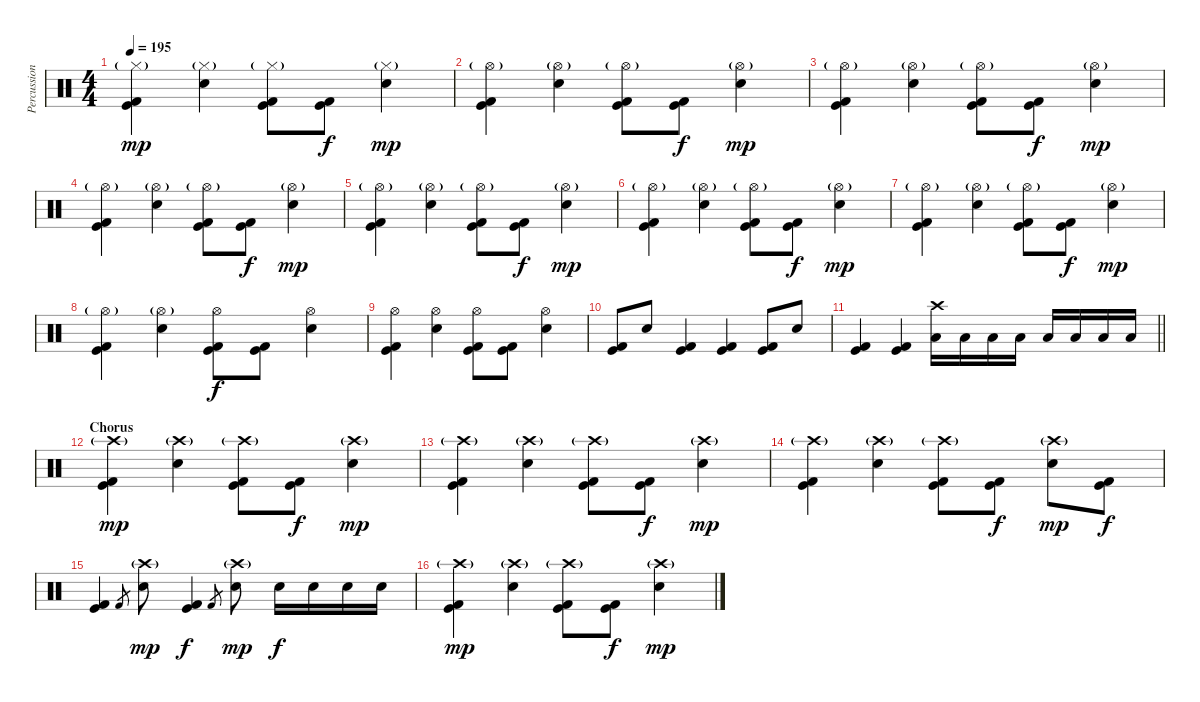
\track ("Percussion" "Percussion") {instrument percussion}
\staff {score}
\articulation defaults
\ts (4 4)
\tempo 195
\clef neutral
\ks c
("Hi-Hat (closed)"{g} "Kick (hit) 2" "Kick (hit)").4{dy mp} ("Hi-Hat (closed)"{g} "Snare (hit) 2").4 ("Hi-Hat (closed)"{g} "Kick (hit) 2" "Kick (hit)").8 ("Kick (hit) 2" "Kick (hit)").8{dy f} ("Hi-Hat (closed)"{g} "Snare (hit) 2").4{dy mp} |
("Hi-Hat (open)"{g} "Kick (hit) 2" "Kick (hit)").4 ("Hi-Hat (open)"{g} "Snare (hit) 2").4 ("Hi-Hat (open)"{g} "Kick (hit) 2" "Kick (hit)").8 ("Kick (hit) 2" "Kick (hit)").8{dy f} ("Hi-Hat (open)"{g} "Snare (hit) 2").4{dy mp} |
("Hi-Hat (open)"{g} "Kick (hit) 2" "Kick (hit)").4 ("Hi-Hat (open)"{g} "Snare (hit) 2").4 ("Hi-Hat (open)"{g} "Kick (hit) 2" "Kick (hit)").8 ("Kick (hit) 2" "Kick (hit)").8{dy f} ("Hi-Hat (open)"{g} "Snare (hit) 2").4{dy mp} |
("Hi-Hat (open)"{g} "Kick (hit) 2" "Kick (hit)").4 ("Hi-Hat (open)"{g} "Snare (hit) 2").4 ("Hi-Hat (open)"{g} "Kick (hit) 2" "Kick (hit)").8 ("Kick (hit) 2" "Kick (hit)").8{dy f} ("Hi-Hat (open)"{g} "Snare (hit) 2").4{dy mp} |
("Hi-Hat (open)"{g} "Kick (hit) 2" "Kick (hit)").4 ("Hi-Hat (open)"{g} "Snare (hit) 2").4 ("Hi-Hat (open)"{g} "Kick (hit) 2" "Kick (hit)").8 ("Kick (hit) 2" "Kick (hit)").8{dy f} ("Hi-Hat (open)"{g} "Snare (hit) 2").4{dy mp} |
("Hi-Hat (open)"{g} "Kick (hit) 2" "Kick (hit)").4 ("Hi-Hat (open)"{g} "Snare (hit) 2").4 ("Hi-Hat (open)"{g} "Kick (hit) 2" "Kick (hit)").8 ("Kick (hit) 2" "Kick (hit)").8{dy f} ("Hi-Hat (open)"{g} "Snare (hit) 2").4{dy mp} |
("Hi-Hat (open)"{g} "Kick (hit) 2" "Kick (hit)").4 ("Hi-Hat (open)"{g} "Snare (hit) 2").4 ("Hi-Hat (open)"{g} "Kick (hit) 2" "Kick (hit)").8 ("Kick (hit) 2" "Kick (hit)").8{dy f} ("Hi-Hat (open)"{g} "Snare (hit) 2").4{dy mp} |
("Hi-Hat (open)"{g} "Kick (hit) 2" "Kick (hit)").4 ("Hi-Hat (open)"{g} "Snare (hit) 2").4 ("Hi-Hat (open)" "Kick (hit) 2" "Kick (hit)").8{dy f} ("Kick (hit) 2" "Kick (hit)").8 ("Hi-Hat (open)" "Snare (hit) 2").4 |
("Hi-Hat (open)" "Kick (hit) 2" "Kick (hit)").4 ("Hi-Hat (open)" "Snare (hit) 2").4 ("Hi-Hat (open)" "Kick (hit) 2" "Kick (hit)").8 ("Kick (hit) 2" "Kick (hit)").8 ("Hi-Hat (open)" "Snare (hit) 2").4 |
("Kick (hit) 2" "Kick (hit)").8 "Snare (hit) 2".8 ("Kick (hit) 2" "Kick (hit)").4 ("Kick (hit) 2" "Kick (hit)").4 ("Kick (hit)" "Kick (hit) 2").8 "Snare (hit) 2".8 |
\barLineRight lightlight
("Kick (hit) 2" "Kick (hit)").4 ("Kick (hit) 2" "Kick (hit)").4 ("Crash high (hit)" "Low Tom (hit)").16 "Low Tom (hit)".16 "Low Tom (hit)".16 "Low Tom (hit)".16 "Low Floor Tom (hit)".16 "Low Floor Tom (hit)".16 "Low Floor Tom (hit)".16 "Low Floor Tom (hit)".16 |
\section ("" "Chorus")
("Crash high (hit)"{g} "Kick (hit) 2" "Kick (hit)").4{dy mp} ("Crash high (hit)"{g} "Electric Snare (hit)").4 ("Crash high (hit)"{g} "Kick (hit) 2" "Kick (hit)").8 ("Kick (hit) 2" "Kick (hit)").8{dy f} ("Crash high (hit)"{g} "Electric Snare (hit)").4{dy mp} |
("Crash high (hit)"{g} "Kick (hit) 2" "Kick (hit)").4 ("Crash high (hit)"{g} "Electric Snare (hit)").4 ("Crash high (hit)"{g} "Kick (hit) 2" "Kick (hit)").8 ("Kick (hit) 2" "Kick (hit)").8{dy f} ("Crash high (hit)"{g} "Electric Snare (hit)").4{dy mp} |
("Crash high (hit)"{g} "Kick (hit) 2" "Kick (hit)").4 ("Crash high (hit)"{g} "Electric Snare (hit)").4 ("Crash high (hit)"{g} "Kick (hit) 2" "Kick (hit)").8 ("Kick (hit) 2" "Kick (hit)").8{dy f} ("Crash high (hit)"{g} "Electric Snare (hit)").8{dy mp} ("Kick (hit)" "Kick (hit) 2").8{dy f} |
("Kick (hit)" "Kick (hit) 2").4 "Kick (hit) 2".8{gr} ("Crash high (hit)"{g} "Snare (hit) 2").8{dy mp} ("Kick (hit)" "Kick (hit) 2").4{dy f} "Kick (hit) 2".8{gr} ("Crash high (hit)"{g} "Snare (hit) 2").8{dy mp} "Snare (hit) 2".16{dy f} "Snare (hit) 2".16 "Snare (hit) 2".16 "Snare (hit) 2".16 |
("Crash high (hit)"{g} "Kick (hit) 2" "Kick (hit)").4{dy mp} ("Crash high (hit)"{g} "Electric Snare (hit)").4 ("Crash high (hit)"{g} "Kick (hit) 2" "Kick (hit)").8 ("Kick (hit) 2" "Kick (hit)").8{dy f} ("Crash high (hit)"{g} "Electric Snare (hit)").4{dy mp}
